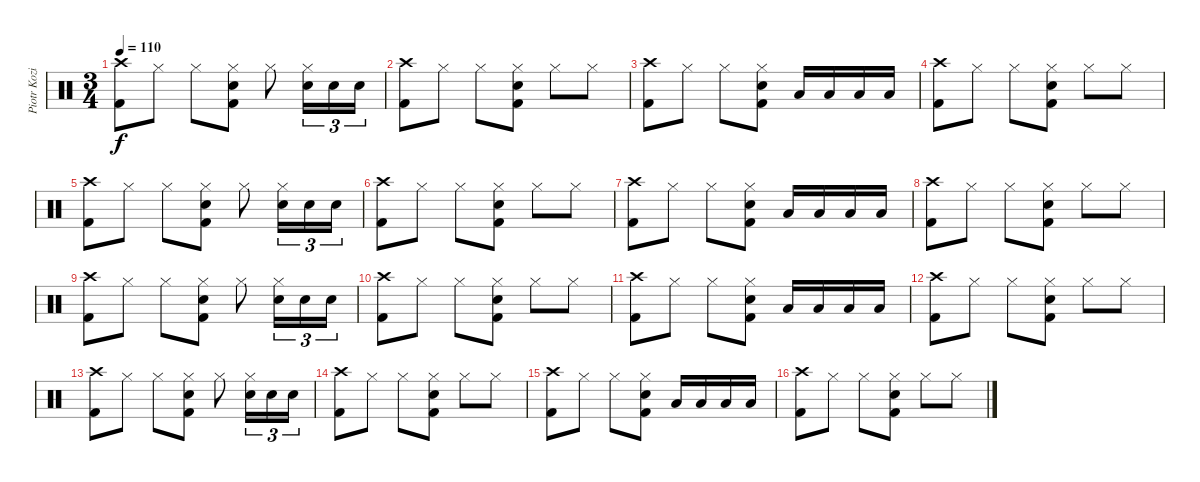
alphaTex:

\track ("Piotr Kozieradzki" "Piotr Kozi") {instrument percussion}
\staff {score}
\articulation defaults
\ts (3 4)
\tempo 110
\clef neutral
\ks c
("Crash high (hit)" "Kick (hit) 2").8{dy f} "Hi-Hat (closed)".8 "Hi-Hat (closed)".8 ("Hi-Hat (closed)" "Electric Snare (hit)" "Kick (hit) 2").8 "Hi-Hat (closed)".8 ("Hi-Hat (closed)" "Electric Snare (hit)").16{tu (3 2)} "Electric Snare (hit)".16{tu (3 2)} "Electric Snare (hit)".16{tu (3 2)} |
("Crash high (hit)" "Kick (hit) 2").8 "Hi-Hat (closed)".8 "Hi-Hat (closed)".8 ("Hi-Hat (closed)" "Electric Snare (hit)" "Kick (hit) 2").8 "Hi-Hat (closed)".8 "Hi-Hat (closed)".8 |
("Crash high (hit)" "Kick (hit) 2").8 "Hi-Hat (closed)".8 "Hi-Hat (closed)".8 ("Hi-Hat (closed)" "Electric Snare (hit)" "Kick (hit) 2").8 "Low Tom (hit)".16 "Low Tom (hit)".16 "Low Tom (hit)".16 "Low Tom (hit)".16 |
("Crash high (hit)" "Kick (hit) 2").8 "Hi-Hat (closed)".8 "Hi-Hat (closed)".8 ("Hi-Hat (closed)" "Electric Snare (hit)" "Kick (hit) 2").8 "Hi-Hat (closed)".8 "Hi-Hat (closed)".8 |
("Crash high (hit)" "Kick (hit) 2").8 "Hi-Hat (closed)".8 "Hi-Hat (closed)".8 ("Hi-Hat (closed)" "Electric Snare (hit)" "Kick (hit) 2").8 "Hi-Hat (closed)".8 ("Hi-Hat (closed)" "Electric Snare (hit)").16{tu (3 2)} "Electric Snare (hit)".16{tu (3 2)} "Electric Snare (hit)".16{tu (3 2)} |
("Crash high (hit)" "Kick (hit) 2").8 "Hi-Hat (closed)".8 "Hi-Hat (closed)".8 ("Hi-Hat (closed)" "Electric Snare (hit)" "Kick (hit) 2").8 "Hi-Hat (closed)".8 "Hi-Hat (closed)".8 |
("Crash high (hit)" "Kick (hit) 2").8 "Hi-Hat (closed)".8 "Hi-Hat (closed)".8 ("Hi-Hat (closed)" "Electric Snare (hit)" "Kick (hit) 2").8 "Low Tom (hit)".16 "Low Tom (hit)".16 "Low Tom (hit)".16 "Low Tom (hit)".16 |
("Crash high (hit)" "Kick (hit) 2").8 "Hi-Hat (closed)".8 "Hi-Hat (closed)".8 ("Hi-Hat (closed)" "Electric Snare (hit)" "Kick (hit) 2").8 "Hi-Hat (closed)".8 "Hi-Hat (closed)".8 |
("Crash high (hit)" "Kick (hit) 2").8 "Hi-Hat (closed)".8 "Hi-Hat (closed)".8 ("Hi-Hat (closed)" "Electric Snare (hit)" "Kick (hit) 2").8 "Hi-Hat (closed)".8 ("Hi-Hat (closed)" "Electric Snare (hit)").16{tu (3 2)} "Electric Snare (hit)".16{tu (3 2)} "Electric Snare (hit)".16{tu (3 2)} |
("Crash high (hit)" "Kick (hit) 2").8 "Hi-Hat (closed)".8 "Hi-Hat (closed)".8 ("Hi-Hat (closed)" "Electric Snare (hit)" "Kick (hit) 2").8 "Hi-Hat (closed)".8 "Hi-Hat (closed)".8 |
("Crash high (hit)" "Kick (hit) 2").8 "Hi-Hat (closed)".8 "Hi-Hat (closed)".8 ("Hi-Hat (closed)" "Electric Snare (hit)" "Kick (hit) 2").8 "Low Tom (hit)".16 "Low Tom (hit)".16 "Low Tom (hit)".16 "Low Tom (hit)".16 |
("Crash high (hit)" "Kick (hit) 2").8 "Hi-Hat (closed)".8 "Hi-Hat (closed)".8 ("Hi-Hat (closed)" "Electric Snare (hit)" "Kick (hit) 2").8 "Hi-Hat (closed)".8 "Hi-Hat (closed)".8 |
("Crash high (hit)" "Kick (hit) 2").8 "Hi-Hat (closed)".8 "Hi-Hat (closed)".8 ("Hi-Hat (closed)" "Electric Snare (hit)" "Kick (hit) 2").8 "Hi-Hat (closed)".8 ("Hi-Hat (closed)" "Electric Snare (hit)").16{tu (3 2)} "Electric Snare (hit)".16{tu (3 2)} "Electric Snare (hit)".16{tu (3 2)} |
("Crash high (hit)" "Kick (hit) 2").8 "Hi-Hat (closed)".8 "Hi-Hat (closed)".8 ("Hi-Hat (closed)" "Electric Snare (hit)" "Kick (hit) 2").8 "Hi-Hat (closed)".8 "Hi-Hat (closed)".8 |
("Crash high (hit)" "Kick (hit) 2").8 "Hi-Hat (closed)".8 "Hi-Hat (closed)".8 ("Hi-Hat (closed)" "Electric Snare (hit)" "Kick (hit) 2").8 "Low Tom (hit)".16 "Low Tom (hit)".16 "Low Tom (hit)".16 "Low Tom (hit)".16 |
("Crash high (hit)" "Kick (hit) 2").8 "Hi-Hat (closed)".8 "Hi-Hat (closed)".8 ("Hi-Hat (closed)" "Electric Snare (hit)" "Kick (hit) 2").8 "Hi-Hat (closed)".8 "Hi-Hat (closed)".8
